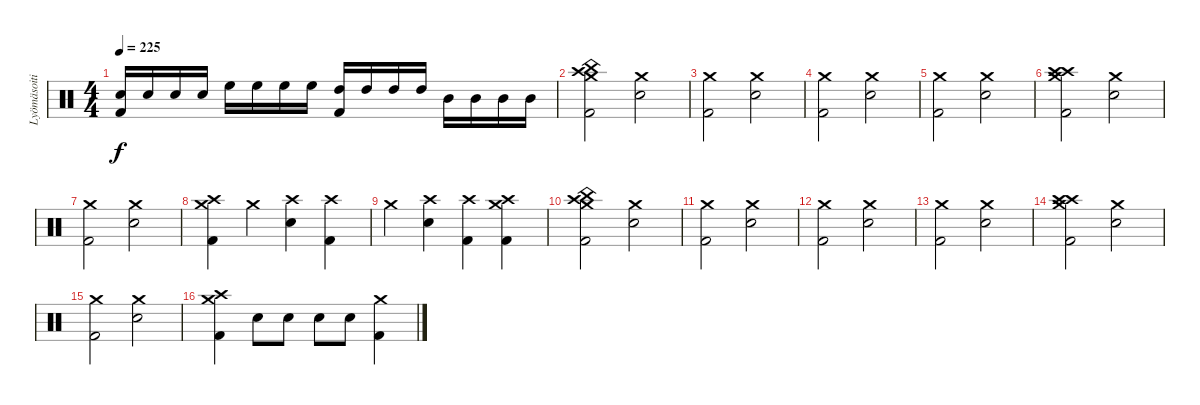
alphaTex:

\track ("Lyömäsoitin" "Lyömäsoiti") {instrument percussion}
\staff {score}
\articulation defaults
\ts (4 4)
\tempo 225
\clef neutral
\ks c
("Snare (hit) 2" "Kick (hit) 2").16{dy f} "Snare (hit) 2".16 "Snare (hit) 2".16 "Snare (hit) 2".16 "High Floor Tom (hit)".16 "High Floor Tom (hit)".16 "High Floor Tom (hit)".16 "High Floor Tom (hit)".16 ("High Tom (hit)" "Kick (hit) 2").16 "High Tom (hit)".16 "High Tom (hit)".16 "High Tom (hit)".16 "Mid Tom (hit)".16 "Mid Tom (hit)".16 "Mid Tom (hit)".16 "Mid Tom (hit)".16 |
("Crash high (hit)" "China (hit)" "Crash medium (hit)" "Kick (hit) 2").2 ("Crash medium (hit)" "Snare (hit) 2").2 |
("Crash medium (hit)" "Kick (hit) 2").2 ("Crash medium (hit)" "Snare (hit) 2").2 |
("Crash medium (hit)" "Kick (hit) 2").2 ("Crash medium (hit)" "Snare (hit) 2").2 |
("Crash medium (hit)" "Kick (hit) 2").2 ("Crash medium (hit)" "Snare (hit) 2").2 |
("Crash high (hit)" "Crash high (hit)" "Crash medium (hit)" "Kick (hit) 2").2 ("Crash medium (hit)" "Snare (hit) 2").2 |
("Crash medium (hit)" "Kick (hit) 2").2 ("Crash medium (hit)" "Snare (hit) 2").2 |
("Crash high (hit)" "Crash medium (hit)" "Kick (hit) 2").4 "Crash medium (hit)".4 ("Crash high (hit)" "Snare (hit) 2").4 ("Crash high (hit)" "Kick (hit) 2").4 |
"Crash medium (hit)".4 ("Crash high (hit)" "Snare (hit) 2").4 ("Crash high (hit)" "Kick (hit) 2").4 ("Crash high (hit)" "Crash medium (hit)" "Kick (hit) 2").4 |
("Crash high (hit)" "China (hit)" "Crash medium (hit)" "Kick (hit) 2").2 ("Crash medium (hit)" "Snare (hit) 2").2 |
("Crash medium (hit)" "Kick (hit) 2").2 ("Crash medium (hit)" "Snare (hit) 2").2 |
("Crash medium (hit)" "Kick (hit) 2").2 ("Crash medium (hit)" "Snare (hit) 2").2 |
("Crash medium (hit)" "Kick (hit) 2").2 ("Crash medium (hit)" "Snare (hit) 2").2 |
("Crash high (hit)" "Crash high (hit)" "Crash medium (hit)" "Kick (hit) 2").2 ("Crash medium (hit)" "Snare (hit) 2").2 |
("Crash medium (hit)" "Kick (hit) 2").2 ("Crash medium (hit)" "Snare (hit) 2").2 |
("Crash high (hit)" "Crash medium (hit)" "Kick (hit) 2").4 "Snare (hit) 2".8 "Snare (hit) 2".8 "Snare (hit) 2".8 "Snare (hit) 2".8 ("Crash medium (hit)" "Kick (hit) 2").4
